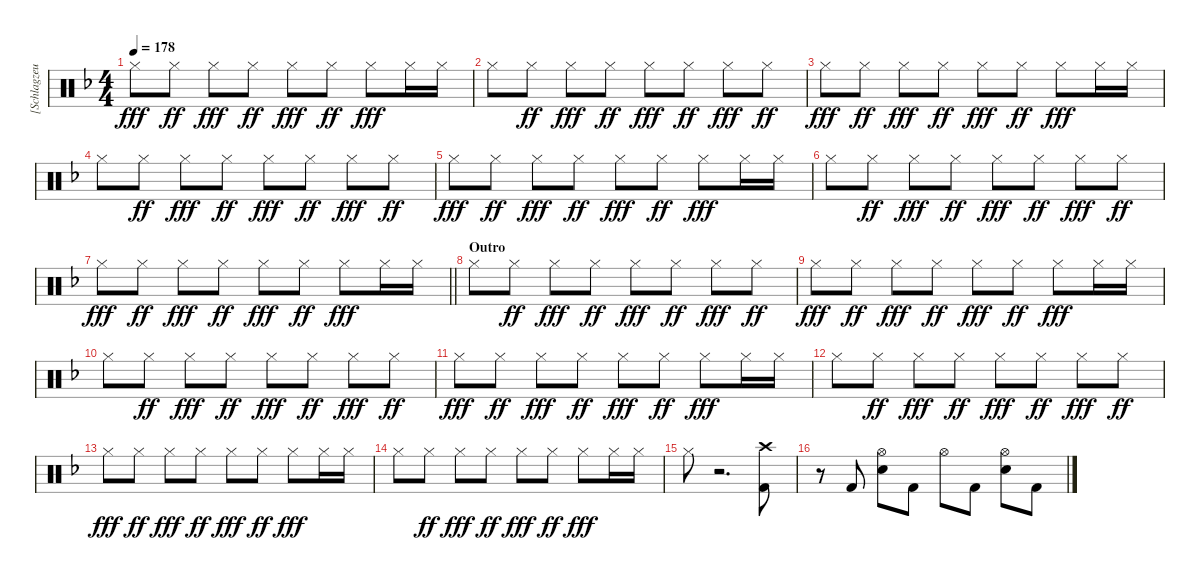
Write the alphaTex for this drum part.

\track ("[Schlagzeug]" "[Schlagzeu") {instrument percussion}
\staff {score}
\articulation defaults
\ts (4 4)
\tempo 178
\clef neutral
\ks dminor "Hi-Hat (closed)".8{dy fff} "Hi-Hat (closed)".8{dy ff} "Hi-Hat (closed)".8{dy fff} "Hi-Hat (closed)".8{dy ff} "Hi-Hat (closed)".8{dy fff} "Hi-Hat (closed)".8{dy ff} "Hi-Hat (closed)".8{dy fff} "Hi-Hat (closed)".16 "Hi-Hat (closed)".16
|
"Hi-Hat (closed)".8 "Hi-Hat (closed)".8{dy ff} "Hi-Hat (closed)".8{dy fff} "Hi-Hat (closed)".8{dy ff} "Hi-Hat (closed)".8{dy fff} "Hi-Hat (closed)".8{dy ff} "Hi-Hat (closed)".8{dy fff} "Hi-Hat (closed)".8{dy ff} |
"Hi-Hat (closed)".8{dy fff} "Hi-Hat (closed)".8{dy ff} "Hi-Hat (closed)".8{dy fff} "Hi-Hat (closed)".8{dy ff} "Hi-Hat (closed)".8{dy fff} "Hi-Hat (closed)".8{dy ff} "Hi-Hat (closed)".8{dy fff} "Hi-Hat (closed)".16 "Hi-Hat (closed)".16 |
"Hi-Hat (closed)".8 "Hi-Hat (closed)".8{dy ff} "Hi-Hat (closed)".8{dy fff} "Hi-Hat (closed)".8{dy ff} "Hi-Hat (closed)".8{dy fff} "Hi-Hat (closed)".8{dy ff} "Hi-Hat (closed)".8{dy fff} "Hi-Hat (closed)".8{dy ff} |
"Hi-Hat (closed)".8{dy fff} "Hi-Hat (closed)".8{dy ff} "Hi-Hat (closed)".8{dy fff} "Hi-Hat (closed)".8{dy ff} "Hi-Hat (closed)".8{dy fff} "Hi-Hat (closed)".8{dy ff} "Hi-Hat (closed)".8{dy fff} "Hi-Hat (closed)".16 "Hi-Hat (closed)".16 |
"Hi-Hat (closed)".8 "Hi-Hat (closed)".8{dy ff} "Hi-Hat (closed)".8{dy fff} "Hi-Hat (closed)".8{dy ff} "Hi-Hat (closed)".8{dy fff} "Hi-Hat (closed)".8{dy ff} "Hi-Hat (closed)".8{dy fff} "Hi-Hat (closed)".8{dy ff} |
\barLineRight lightlight "Hi-Hat (closed)".8{dy fff} "Hi-Hat (closed)".8{dy ff} "Hi-Hat (closed)".8{dy fff} "Hi-Hat (closed)".8{dy ff} "Hi-Hat (closed)".8{dy fff} "Hi-Hat (closed)".8{dy ff} "Hi-Hat (closed)".8{dy fff} "Hi-Hat (closed)".16 "Hi-Hat (closed)".16
|
\section ("" "Outro")
"Hi-Hat (closed)".8 "Hi-Hat (closed)".8{dy ff} "Hi-Hat (closed)".8{dy fff} "Hi-Hat (closed)".8{dy ff} "Hi-Hat (closed)".8{dy fff} "Hi-Hat (closed)".8{dy ff} "Hi-Hat (closed)".8{dy fff} "Hi-Hat (closed)".8{dy ff} |
"Hi-Hat (closed)".8{dy fff} "Hi-Hat (closed)".8{dy ff} "Hi-Hat (closed)".8{dy fff} "Hi-Hat (closed)".8{dy ff} "Hi-Hat (closed)".8{dy fff} "Hi-Hat (closed)".8{dy ff} "Hi-Hat (closed)".8{dy fff} "Hi-Hat (closed)".16 "Hi-Hat (closed)".16 |
"Hi-Hat (closed)".8 "Hi-Hat (closed)".8{dy ff} "Hi-Hat (closed)".8{dy fff} "Hi-Hat (closed)".8{dy ff} "Hi-Hat (closed)".8{dy fff} "Hi-Hat (closed)".8{dy ff} "Hi-Hat (closed)".8{dy fff} "Hi-Hat (closed)".8{dy ff} |
"Hi-Hat (closed)".8{dy fff} "Hi-Hat (closed)".8{dy ff} "Hi-Hat (closed)".8{dy fff} "Hi-Hat (closed)".8{dy ff} "Hi-Hat (closed)".8{dy fff} "Hi-Hat (closed)".8{dy ff} "Hi-Hat (closed)".8{dy fff} "Hi-Hat (closed)".16 "Hi-Hat (closed)".16 |
"Hi-Hat (closed)".8 "Hi-Hat (closed)".8{dy ff} "Hi-Hat (closed)".8{dy fff} "Hi-Hat (closed)".8{dy ff} "Hi-Hat (closed)".8{dy fff} "Hi-Hat (closed)".8{dy ff} "Hi-Hat (closed)".8{dy fff} "Hi-Hat (closed)".8{dy ff} |
"Hi-Hat (closed)".8{dy fff} "Hi-Hat (closed)".8{dy ff} "Hi-Hat (closed)".8{dy fff} "Hi-Hat (closed)".8{dy ff} "Hi-Hat (closed)".8{dy fff} "Hi-Hat (closed)".8{dy ff} "Hi-Hat (closed)".8{dy fff} "Hi-Hat (closed)".16 "Hi-Hat (closed)".16 |
"Hi-Hat (closed)".8 "Hi-Hat (closed)".8{dy ff} "Hi-Hat (closed)".8{dy fff} "Hi-Hat (closed)".8{dy ff} "Hi-Hat (closed)".8{dy fff} "Hi-Hat (closed)".8{dy ff} "Hi-Hat (closed)".8{dy fff} "Hi-Hat (closed)".16 "Hi-Hat (closed)".16 |
"Hi-Hat (closed)".8 r.2{d} ("Crash high (hit)" "Kick (hit) 2").8 |
r.8 "Kick (hit) 2".8 ("Hi-Hat (open)" "Electric Snare (hit)").8 "Kick (hit) 2".8 "Hi-Hat (open)".8 "Kick (hit) 2".8 ("Hi-Hat (open)" "Electric Snare (hit)").8 "Kick (hit) 2".8
